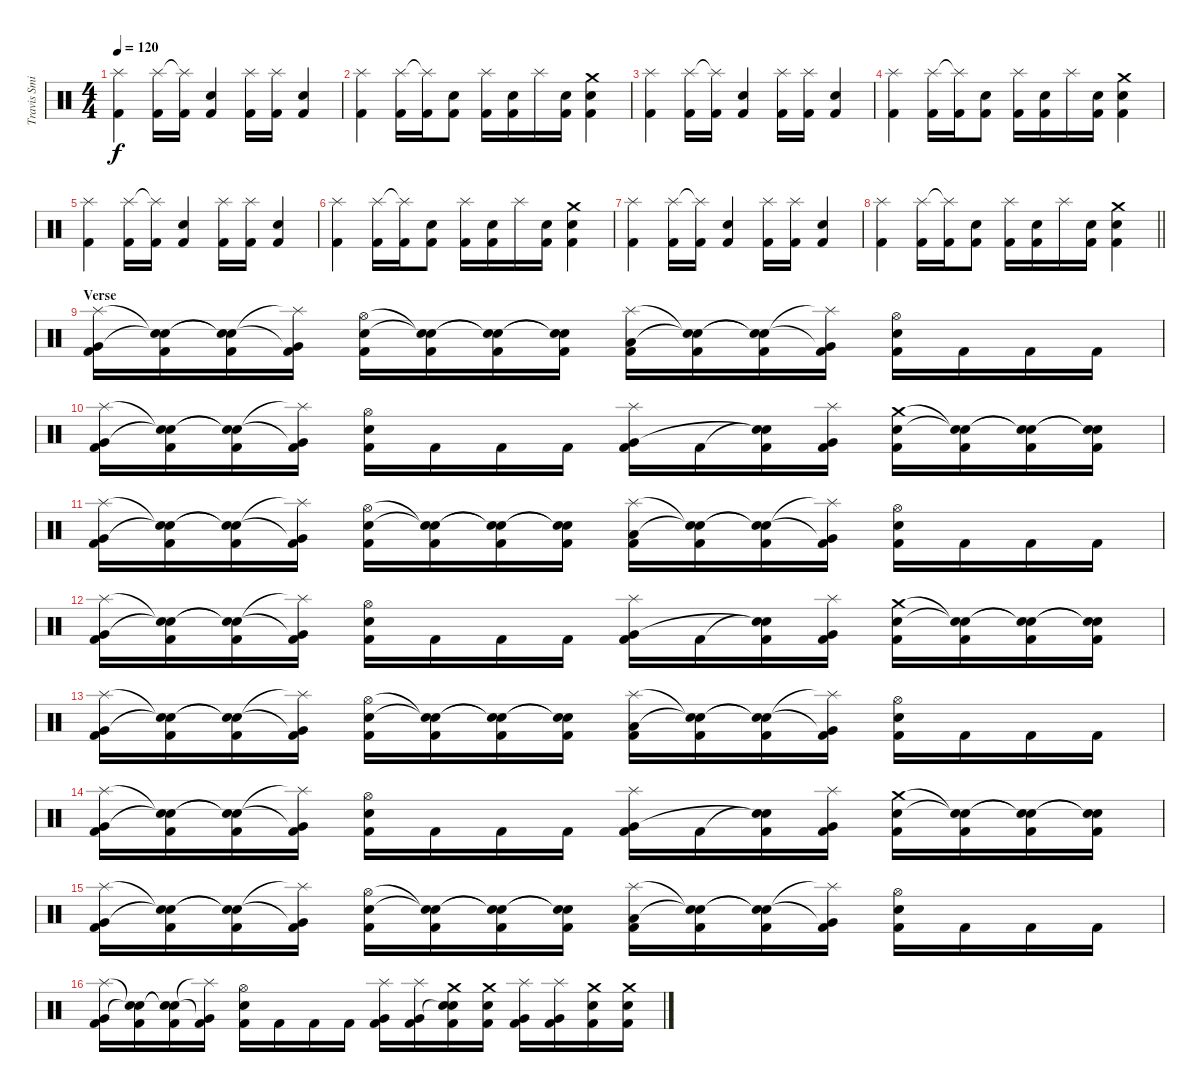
\track ("Travis Smith" "Travis Smi") {instrument percussion}
\staff {score}
\articulation defaults
\ts (4 4)
\tempo 120
\clef neutral
\ks c
("Splash (hit)" "Kick (hit) 2").4{dy f} ("Splash (hit)" "Kick (hit) 2").16 ("Splash (hit)"{t} "Kick (hit) 2").16 ("Snare (hit) 2" "Kick (hit) 2").4 ("Splash (hit)" "Kick (hit) 2").16 ("Splash (hit)" "Kick (hit) 2").16 ("Snare (hit) 2" "Kick (hit) 2").4 |
("Splash (hit)" "Kick (hit) 2").4 ("Splash (hit)" "Kick (hit) 2").16 ("Splash (hit)"{t} "Kick (hit) 2").16 ("Snare (hit) 2" "Kick (hit) 2").8 ("Splash (hit)" "Kick (hit) 2").16 ("Snare (hit) 2" "Kick (hit) 2").16 "Splash (hit)".16 ("Snare (hit) 2" "Kick (hit) 2").16 ("Crash medium (hit)" "Snare (hit) 2" "Kick (hit) 2").4 |
("Splash (hit)" "Kick (hit) 2").4 ("Splash (hit)" "Kick (hit) 2").16 ("Splash (hit)"{t} "Kick (hit) 2").16 ("Snare (hit) 2" "Kick (hit) 2").4 ("Splash (hit)" "Kick (hit) 2").16 ("Splash (hit)" "Kick (hit) 2").16 ("Snare (hit) 2" "Kick (hit) 2").4 |
("Splash (hit)" "Kick (hit) 2").4 ("Splash (hit)" "Kick (hit) 2").16 ("Splash (hit)"{t} "Kick (hit) 2").16 ("Snare (hit) 2" "Kick (hit) 2").8 ("Splash (hit)" "Kick (hit) 2").16 ("Snare (hit) 2" "Kick (hit) 2").16 "Splash (hit)".16 ("Snare (hit) 2" "Kick (hit) 2").16 ("Crash medium (hit)" "Snare (hit) 2" "Kick (hit) 2").4 |
("Splash (hit)" "Kick (hit) 2").4 ("Splash (hit)" "Kick (hit) 2").16 ("Splash (hit)"{t} "Kick (hit) 2").16 ("Snare (hit) 2" "Kick (hit) 2").4 ("Splash (hit)" "Kick (hit) 2").16 ("Splash (hit)" "Kick (hit) 2").16 ("Snare (hit) 2" "Kick (hit) 2").4 |
("Splash (hit)" "Kick (hit) 2").4 ("Splash (hit)" "Kick (hit) 2").16 ("Splash (hit)"{t} "Kick (hit) 2").16 ("Snare (hit) 2" "Kick (hit) 2").8 ("Splash (hit)" "Kick (hit) 2").16 ("Snare (hit) 2" "Kick (hit) 2").16 "Splash (hit)".16 ("Snare (hit) 2" "Kick (hit) 2").16 ("Crash medium (hit)" "Snare (hit) 2" "Kick (hit) 2").4 |
("Splash (hit)" "Kick (hit) 2").4 ("Splash (hit)" "Kick (hit) 2").16 ("Splash (hit)"{t} "Kick (hit) 2").16 ("Snare (hit) 2" "Kick (hit) 2").4 ("Splash (hit)" "Kick (hit) 2").16 ("Splash (hit)" "Kick (hit) 2").16 ("Snare (hit) 2" "Kick (hit) 2").4 |
\barLineRight lightlight
("Splash (hit)" "Kick (hit) 2").4 ("Splash (hit)" "Kick (hit) 2").16 ("Splash (hit)"{t} "Kick (hit) 2").16 ("Snare (hit) 2" "Kick (hit) 2").8 ("Splash (hit)" "Kick (hit) 2").16 ("Snare (hit) 2" "Kick (hit) 2").16 "Splash (hit)".16 ("Snare (hit) 2" "Kick (hit) 2").16 ("Crash medium (hit)" "Snare (hit) 2" "Kick (hit) 2").4 |
\section ("" "Verse")
("Splash (hit)" "Very Low Tom (hit)" "Kick (hit) 2").16 ("Snare (hit)"{t} "Snare (hit)"{t} "Kick (hit) 2").16 ("Snare (hit)"{t} "Snare (hit)"{t} "Kick (hit) 2").16 ("Splash (hit)"{t} "Very Low Tom (hit)"{t} "Kick (hit) 2").16 ("Hi-Hat (open)" "Snare (hit) 2" "Kick (hit) 2").16 ("Snare (hit)"{t} "Snare (hit)"{t} "Kick (hit) 2").16 ("Snare (hit)"{t} "Snare (hit)"{t} "Kick (hit) 2").16 ("Snare (hit)"{t} "Snare (hit)"{t} "Kick (hit) 2").16 ("Splash (hit)" "Low Floor Tom (hit)" "Kick (hit) 2").16 ("Snare (hit)"{t} "Snare (hit)"{t} "Kick (hit) 2").16 ("Snare (hit)"{t} "Snare (hit)"{t} "Kick (hit) 2").16 ("Splash (hit)"{t} "Very Low Tom (hit)"{t} "Kick (hit) 2").16 ("Hi-Hat (open)" "Snare (hit) 2" "Kick (hit) 2").16 "Kick (hit) 2".16 "Kick (hit) 2".16 "Kick (hit) 2".16 |
("Splash (hit)" "Very Low Tom (hit)" "Kick (hit) 2").16 ("Snare (hit)"{t} "Snare (hit)"{t} "Kick (hit) 2").16 ("Snare (hit)"{t} "Snare (hit)"{t} "Kick (hit) 2").16 ("Splash (hit)"{t} "Very Low Tom (hit)"{t} "Kick (hit) 2").16 ("Hi-Hat (open)" "Snare (hit) 2" "Kick (hit) 2").16 "Kick (hit) 2".16 "Kick (hit) 2".16 "Kick (hit) 2".16 ("Splash (hit)" "Very Low Tom (hit)" "Kick (hit) 2").16 "Kick (hit) 2".16 ("Snare (hit)"{t} "Snare (hit)"{t} "Kick (hit) 2").16 ("Splash (hit)" "Very Low Tom (hit)" "Kick (hit) 2").16 ("Crash medium (hit)" "Snare (hit) 2" "Kick (hit) 2").16 ("Snare (hit)"{t} "Snare (hit)"{t} "Kick (hit) 2").16 ("Snare (hit)"{t} "Snare (hit)"{t} "Kick (hit) 2").16 ("Snare (hit)"{t} "Snare (hit)"{t} "Kick (hit) 2").16 |
("Splash (hit)" "Very Low Tom (hit)" "Kick (hit) 2").16 ("Snare (hit)"{t} "Snare (hit)"{t} "Kick (hit) 2").16 ("Snare (hit)"{t} "Snare (hit)"{t} "Kick (hit) 2").16 ("Splash (hit)"{t} "Very Low Tom (hit)"{t} "Kick (hit) 2").16 ("Hi-Hat (open)" "Snare (hit) 2" "Kick (hit) 2").16 ("Snare (hit)"{t} "Snare (hit)"{t} "Kick (hit) 2").16 ("Snare (hit)"{t} "Snare (hit)"{t} "Kick (hit) 2").16 ("Snare (hit)"{t} "Snare (hit)"{t} "Kick (hit) 2").16 ("Splash (hit)" "Low Floor Tom (hit)" "Kick (hit) 2").16 ("Snare (hit)"{t} "Snare (hit)"{t} "Kick (hit) 2").16 ("Snare (hit)"{t} "Snare (hit)"{t} "Kick (hit) 2").16 ("Splash (hit)"{t} "Very Low Tom (hit)"{t} "Kick (hit) 2").16 ("Hi-Hat (open)" "Snare (hit) 2" "Kick (hit) 2").16 "Kick (hit) 2".16 "Kick (hit) 2".16 "Kick (hit) 2".16 |
("Splash (hit)" "Very Low Tom (hit)" "Kick (hit) 2").16 ("Snare (hit)"{t} "Snare (hit)"{t} "Kick (hit) 2").16 ("Snare (hit)"{t} "Snare (hit)"{t} "Kick (hit) 2").16 ("Splash (hit)"{t} "Very Low Tom (hit)"{t} "Kick (hit) 2").16 ("Hi-Hat (open)" "Snare (hit) 2" "Kick (hit) 2").16 "Kick (hit) 2".16 "Kick (hit) 2".16 "Kick (hit) 2".16 ("Splash (hit)" "Very Low Tom (hit)" "Kick (hit) 2").16 "Kick (hit) 2".16 ("Snare (hit)"{t} "Snare (hit)"{t} "Kick (hit) 2").16 ("Splash (hit)" "Very Low Tom (hit)" "Kick (hit) 2").16 ("Crash medium (hit)" "Snare (hit) 2" "Kick (hit) 2").16 ("Snare (hit)"{t} "Snare (hit)"{t} "Kick (hit) 2").16 ("Snare (hit)"{t} "Snare (hit)"{t} "Kick (hit) 2").16 ("Snare (hit)"{t} "Snare (hit)"{t} "Kick (hit) 2").16 |
("Splash (hit)" "Very Low Tom (hit)" "Kick (hit) 2").16 ("Snare (hit)"{t} "Snare (hit)"{t} "Kick (hit) 2").16 ("Snare (hit)"{t} "Snare (hit)"{t} "Kick (hit) 2").16 ("Splash (hit)"{t} "Very Low Tom (hit)"{t} "Kick (hit) 2").16 ("Hi-Hat (open)" "Snare (hit) 2" "Kick (hit) 2").16 ("Snare (hit)"{t} "Snare (hit)"{t} "Kick (hit) 2").16 ("Snare (hit)"{t} "Snare (hit)"{t} "Kick (hit) 2").16 ("Snare (hit)"{t} "Snare (hit)"{t} "Kick (hit) 2").16 ("Splash (hit)" "Low Floor Tom (hit)" "Kick (hit) 2").16 ("Snare (hit)"{t} "Snare (hit)"{t} "Kick (hit) 2").16 ("Snare (hit)"{t} "Snare (hit)"{t} "Kick (hit) 2").16 ("Splash (hit)"{t} "Very Low Tom (hit)"{t} "Kick (hit) 2").16 ("Hi-Hat (open)" "Snare (hit) 2" "Kick (hit) 2").16 "Kick (hit) 2".16 "Kick (hit) 2".16 "Kick (hit) 2".16 |
("Splash (hit)" "Very Low Tom (hit)" "Kick (hit) 2").16 ("Snare (hit)"{t} "Snare (hit)"{t} "Kick (hit) 2").16 ("Snare (hit)"{t} "Snare (hit)"{t} "Kick (hit) 2").16 ("Splash (hit)"{t} "Very Low Tom (hit)"{t} "Kick (hit) 2").16 ("Hi-Hat (open)" "Snare (hit) 2" "Kick (hit) 2").16 "Kick (hit) 2".16 "Kick (hit) 2".16 "Kick (hit) 2".16 ("Splash (hit)" "Very Low Tom (hit)" "Kick (hit) 2").16 "Kick (hit) 2".16 ("Snare (hit)"{t} "Snare (hit)"{t} "Kick (hit) 2").16 ("Splash (hit)" "Very Low Tom (hit)" "Kick (hit) 2").16 ("Crash medium (hit)" "Snare (hit) 2" "Kick (hit) 2").16 ("Snare (hit)"{t} "Snare (hit)"{t} "Kick (hit) 2").16 ("Snare (hit)"{t} "Snare (hit)"{t} "Kick (hit) 2").16 ("Snare (hit)"{t} "Snare (hit)"{t} "Kick (hit) 2").16 |
("Splash (hit)" "Very Low Tom (hit)" "Kick (hit) 2").16 ("Snare (hit)"{t} "Snare (hit)"{t} "Kick (hit) 2").16 ("Snare (hit)"{t} "Snare (hit)"{t} "Kick (hit) 2").16 ("Splash (hit)"{t} "Very Low Tom (hit)"{t} "Kick (hit) 2").16 ("Hi-Hat (open)" "Snare (hit) 2" "Kick (hit) 2").16 ("Snare (hit)"{t} "Snare (hit)"{t} "Kick (hit) 2").16 ("Snare (hit)"{t} "Snare (hit)"{t} "Kick (hit) 2").16 ("Snare (hit)"{t} "Snare (hit)"{t} "Kick (hit) 2").16 ("Splash (hit)" "Low Floor Tom (hit)" "Kick (hit) 2").16 ("Snare (hit)"{t} "Snare (hit)"{t} "Kick (hit) 2").16 ("Snare (hit)"{t} "Snare (hit)"{t} "Kick (hit) 2").16 ("Splash (hit)"{t} "Very Low Tom (hit)"{t} "Kick (hit) 2").16 ("Hi-Hat (open)" "Snare (hit) 2" "Kick (hit) 2").16 "Kick (hit) 2".16 "Kick (hit) 2".16 "Kick (hit) 2".16 |
("Splash (hit)" "Very Low Tom (hit)" "Kick (hit) 2").16 ("Snare (hit)"{t} "Snare (hit)"{t} "Kick (hit) 2").16 ("Snare (hit)"{t} "Snare (hit)"{t} "Kick (hit) 2").16 ("Splash (hit)"{t} "Very Low Tom (hit)"{t} "Kick (hit) 2").16 ("Hi-Hat (open)" "Snare (hit) 2" "Kick (hit) 2").16 "Kick (hit) 2".16 "Kick (hit) 2".16 "Kick (hit) 2".16 ("Splash (hit)" "Very Low Tom (hit)" "Kick (hit) 2").16 ("Splash (hit)" "Very Low Tom (hit)" "Kick (hit) 2").16 ("Crash medium (hit)" "Snare (hit)"{t} "Snare (hit) 2" "Kick (hit) 2").16 ("Crash medium (hit)" "Snare (hit) 2" "Kick (hit) 2").16 ("Splash (hit)" "Very Low Tom (hit)" "Kick (hit) 2").16 ("Splash (hit)" "Very Low Tom (hit)" "Kick (hit) 2").16 ("Crash medium (hit)" "Snare (hit) 2" "Kick (hit) 2").16 ("Crash medium (hit)" "Snare (hit) 2" "Kick (hit) 2").16
